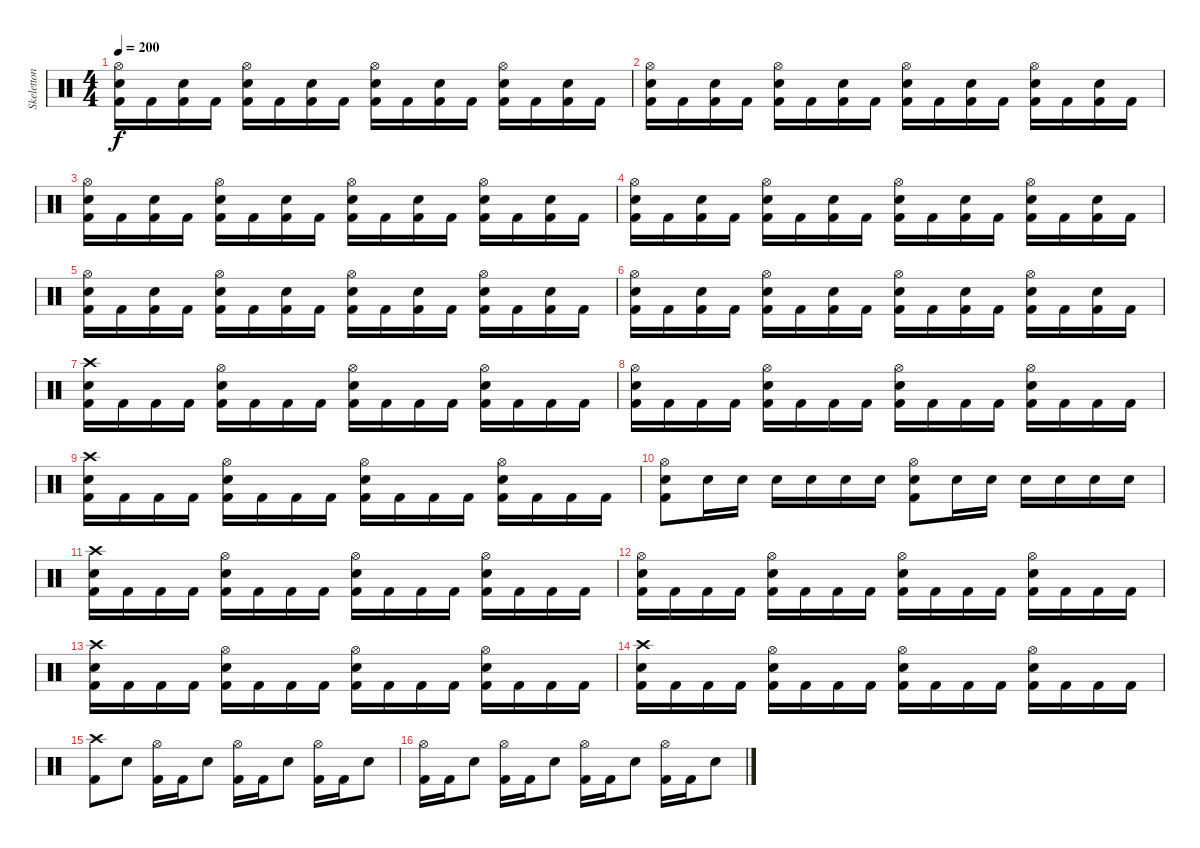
\track ("Skeletton - Drums" "Skeletton ") {instrument percussion}
\staff {score}
\articulation defaults
\ts (4 4)
\tempo 200
\clef neutral
\ks c
("Hi-Hat (open)" "Electric Snare (hit)" "Kick (hit) 2").16{dy f} "Kick (hit) 2".16 ("Electric Snare (hit)" "Kick (hit) 2").16 "Kick (hit) 2".16 ("Hi-Hat (open)" "Electric Snare (hit)" "Kick (hit) 2").16 "Kick (hit) 2".16 ("Electric Snare (hit)" "Kick (hit) 2").16 "Kick (hit) 2".16 ("Hi-Hat (open)" "Electric Snare (hit)" "Kick (hit) 2").16 "Kick (hit) 2".16 ("Electric Snare (hit)" "Kick (hit) 2").16 "Kick (hit) 2".16 ("Hi-Hat (open)" "Electric Snare (hit)" "Kick (hit) 2").16 "Kick (hit) 2".16 ("Electric Snare (hit)" "Kick (hit) 2").16 "Kick (hit) 2".16 |
("Hi-Hat (open)" "Electric Snare (hit)" "Kick (hit) 2").16 "Kick (hit) 2".16 ("Electric Snare (hit)" "Kick (hit) 2").16 "Kick (hit) 2".16 ("Hi-Hat (open)" "Electric Snare (hit)" "Kick (hit) 2").16 "Kick (hit) 2".16 ("Electric Snare (hit)" "Kick (hit) 2").16 "Kick (hit) 2".16 ("Hi-Hat (open)" "Electric Snare (hit)" "Kick (hit) 2").16 "Kick (hit) 2".16 ("Electric Snare (hit)" "Kick (hit) 2").16 "Kick (hit) 2".16 ("Hi-Hat (open)" "Electric Snare (hit)" "Kick (hit) 2").16 "Kick (hit) 2".16 ("Electric Snare (hit)" "Kick (hit) 2").16 "Kick (hit) 2".16 |
("Hi-Hat (open)" "Electric Snare (hit)" "Kick (hit) 2").16 "Kick (hit) 2".16 ("Electric Snare (hit)" "Kick (hit) 2").16 "Kick (hit) 2".16 ("Hi-Hat (open)" "Electric Snare (hit)" "Kick (hit) 2").16 "Kick (hit) 2".16 ("Electric Snare (hit)" "Kick (hit) 2").16 "Kick (hit) 2".16 ("Hi-Hat (open)" "Electric Snare (hit)" "Kick (hit) 2").16 "Kick (hit) 2".16 ("Electric Snare (hit)" "Kick (hit) 2").16 "Kick (hit) 2".16 ("Hi-Hat (open)" "Electric Snare (hit)" "Kick (hit) 2").16 "Kick (hit) 2".16 ("Electric Snare (hit)" "Kick (hit) 2").16 "Kick (hit) 2".16 |
("Hi-Hat (open)" "Electric Snare (hit)" "Kick (hit) 2").16 "Kick (hit) 2".16 ("Electric Snare (hit)" "Kick (hit) 2").16 "Kick (hit) 2".16 ("Hi-Hat (open)" "Electric Snare (hit)" "Kick (hit) 2").16 "Kick (hit) 2".16 ("Electric Snare (hit)" "Kick (hit) 2").16 "Kick (hit) 2".16 ("Hi-Hat (open)" "Electric Snare (hit)" "Kick (hit) 2").16 "Kick (hit) 2".16 ("Electric Snare (hit)" "Kick (hit) 2").16 "Kick (hit) 2".16 ("Hi-Hat (open)" "Electric Snare (hit)" "Kick (hit) 2").16 "Kick (hit) 2".16 ("Electric Snare (hit)" "Kick (hit) 2").16 "Kick (hit) 2".16 |
("Hi-Hat (open)" "Electric Snare (hit)" "Kick (hit) 2").16 "Kick (hit) 2".16 ("Electric Snare (hit)" "Kick (hit) 2").16 "Kick (hit) 2".16 ("Hi-Hat (open)" "Electric Snare (hit)" "Kick (hit) 2").16 "Kick (hit) 2".16 ("Electric Snare (hit)" "Kick (hit) 2").16 "Kick (hit) 2".16 ("Hi-Hat (open)" "Electric Snare (hit)" "Kick (hit) 2").16 "Kick (hit) 2".16 ("Electric Snare (hit)" "Kick (hit) 2").16 "Kick (hit) 2".16 ("Hi-Hat (open)" "Electric Snare (hit)" "Kick (hit) 2").16 "Kick (hit) 2".16 ("Electric Snare (hit)" "Kick (hit) 2").16 "Kick (hit) 2".16 |
("Hi-Hat (open)" "Electric Snare (hit)" "Kick (hit) 2").16 "Kick (hit) 2".16 ("Electric Snare (hit)" "Kick (hit) 2").16 "Kick (hit) 2".16 ("Hi-Hat (open)" "Electric Snare (hit)" "Kick (hit) 2").16 "Kick (hit) 2".16 ("Electric Snare (hit)" "Kick (hit) 2").16 "Kick (hit) 2".16 ("Hi-Hat (open)" "Electric Snare (hit)" "Kick (hit) 2").16 "Kick (hit) 2".16 ("Electric Snare (hit)" "Kick (hit) 2").16 "Kick (hit) 2".16 ("Hi-Hat (open)" "Electric Snare (hit)" "Kick (hit) 2").16 "Kick (hit) 2".16 ("Electric Snare (hit)" "Kick (hit) 2").16 "Kick (hit) 2".16 |
("Crash high (hit)" "Electric Snare (hit)" "Kick (hit) 2").16 "Kick (hit) 2".16 "Kick (hit) 2".16 "Kick (hit) 2".16 ("Hi-Hat (open)" "Electric Snare (hit)" "Kick (hit) 2").16 "Kick (hit) 2".16 "Kick (hit) 2".16 "Kick (hit) 2".16 ("Hi-Hat (open)" "Electric Snare (hit)" "Kick (hit) 2").16 "Kick (hit) 2".16 "Kick (hit) 2".16 "Kick (hit) 2".16 ("Hi-Hat (open)" "Electric Snare (hit)" "Kick (hit) 2").16 "Kick (hit) 2".16 "Kick (hit) 2".16 "Kick (hit) 2".16 |
("Hi-Hat (open)" "Electric Snare (hit)" "Kick (hit) 2").16 "Kick (hit) 2".16 "Kick (hit) 2".16 "Kick (hit) 2".16 ("Hi-Hat (open)" "Electric Snare (hit)" "Kick (hit) 2").16 "Kick (hit) 2".16 "Kick (hit) 2".16 "Kick (hit) 2".16 ("Hi-Hat (open)" "Electric Snare (hit)" "Kick (hit) 2").16 "Kick (hit) 2".16 "Kick (hit) 2".16 "Kick (hit) 2".16 ("Hi-Hat (open)" "Electric Snare (hit)" "Kick (hit) 2").16 "Kick (hit) 2".16 "Kick (hit) 2".16 "Kick (hit) 2".16 |
("Crash high (hit)" "Electric Snare (hit)" "Kick (hit) 2").16 "Kick (hit) 2".16 "Kick (hit) 2".16 "Kick (hit) 2".16 ("Hi-Hat (open)" "Electric Snare (hit)" "Kick (hit) 2").16 "Kick (hit) 2".16 "Kick (hit) 2".16 "Kick (hit) 2".16 ("Hi-Hat (open)" "Electric Snare (hit)" "Kick (hit) 2").16 "Kick (hit) 2".16 "Kick (hit) 2".16 "Kick (hit) 2".16 ("Hi-Hat (open)" "Electric Snare (hit)" "Kick (hit) 2").16 "Kick (hit) 2".16 "Kick (hit) 2".16 "Kick (hit) 2".16 |
("Hi-Hat (open)" "Electric Snare (hit)" "Kick (hit) 2").8 "Electric Snare (hit)".16 "Electric Snare (hit)".16 "Electric Snare (hit)".16 "Electric Snare (hit)".16 "Electric Snare (hit)".16 "Electric Snare (hit)".16 ("Hi-Hat (open)" "Electric Snare (hit)" "Kick (hit) 2").8 "Electric Snare (hit)".16 "Electric Snare (hit)".16 "Electric Snare (hit)".16 "Electric Snare (hit)".16 "Electric Snare (hit)".16 "Electric Snare (hit)".16 |
("Crash high (hit)" "Electric Snare (hit)" "Kick (hit) 2").16 "Kick (hit) 2".16 "Kick (hit) 2".16 "Kick (hit) 2".16 ("Hi-Hat (open)" "Electric Snare (hit)" "Kick (hit) 2").16 "Kick (hit) 2".16 "Kick (hit) 2".16 "Kick (hit) 2".16 ("Hi-Hat (open)" "Electric Snare (hit)" "Kick (hit) 2").16 "Kick (hit) 2".16 "Kick (hit) 2".16 "Kick (hit) 2".16 ("Hi-Hat (open)" "Electric Snare (hit)" "Kick (hit) 2").16 "Kick (hit) 2".16 "Kick (hit) 2".16 "Kick (hit) 2".16 |
("Hi-Hat (open)" "Electric Snare (hit)" "Kick (hit) 2").16 "Kick (hit) 2".16 "Kick (hit) 2".16 "Kick (hit) 2".16 ("Hi-Hat (open)" "Electric Snare (hit)" "Kick (hit) 2").16 "Kick (hit) 2".16 "Kick (hit) 2".16 "Kick (hit) 2".16 ("Hi-Hat (open)" "Electric Snare (hit)" "Kick (hit) 2").16 "Kick (hit) 2".16 "Kick (hit) 2".16 "Kick (hit) 2".16 ("Hi-Hat (open)" "Electric Snare (hit)" "Kick (hit) 2").16 "Kick (hit) 2".16 "Kick (hit) 2".16 "Kick (hit) 2".16 |
("Crash high (hit)" "Electric Snare (hit)" "Kick (hit) 2").16 "Kick (hit) 2".16 "Kick (hit) 2".16 "Kick (hit) 2".16 ("Hi-Hat (open)" "Electric Snare (hit)" "Kick (hit) 2").16 "Kick (hit) 2".16 "Kick (hit) 2".16 "Kick (hit) 2".16 ("Hi-Hat (open)" "Electric Snare (hit)" "Kick (hit) 2").16 "Kick (hit) 2".16 "Kick (hit) 2".16 "Kick (hit) 2".16 ("Hi-Hat (open)" "Electric Snare (hit)" "Kick (hit) 2").16 "Kick (hit) 2".16 "Kick (hit) 2".16 "Kick (hit) 2".16 |
("Crash high (hit)" "Electric Snare (hit)" "Kick (hit) 2").16 "Kick (hit) 2".16 "Kick (hit) 2".16 "Kick (hit) 2".16 ("Hi-Hat (open)" "Electric Snare (hit)" "Kick (hit) 2").16 "Kick (hit) 2".16 "Kick (hit) 2".16 "Kick (hit) 2".16 ("Hi-Hat (open)" "Electric Snare (hit)" "Kick (hit) 2").16 "Kick (hit) 2".16 "Kick (hit) 2".16 "Kick (hit) 2".16 ("Hi-Hat (open)" "Electric Snare (hit)" "Kick (hit) 2").16 "Kick (hit) 2".16 "Kick (hit) 2".16 "Kick (hit) 2".16 |
("Crash high (hit)" "Kick (hit) 2").8 "Electric Snare (hit)".8 ("Hi-Hat (open)" "Kick (hit) 2").16 "Kick (hit) 2".16 "Electric Snare (hit)".8 ("Hi-Hat (open)" "Kick (hit) 2").16 "Kick (hit) 2".16 "Electric Snare (hit)".8 ("Hi-Hat (open)" "Kick (hit) 2").16 "Kick (hit) 2".16 "Electric Snare (hit)".8 |
("Hi-Hat (open)" "Kick (hit) 2").16 "Kick (hit) 2".16 "Electric Snare (hit)".8 ("Hi-Hat (open)" "Kick (hit) 2").16 "Kick (hit) 2".16 "Electric Snare (hit)".8 ("Hi-Hat (open)" "Kick (hit) 2").16 "Kick (hit) 2".16 "Electric Snare (hit)".8 ("Hi-Hat (open)" "Kick (hit) 2").16 "Kick (hit) 2".16 "Electric Snare (hit)".8
